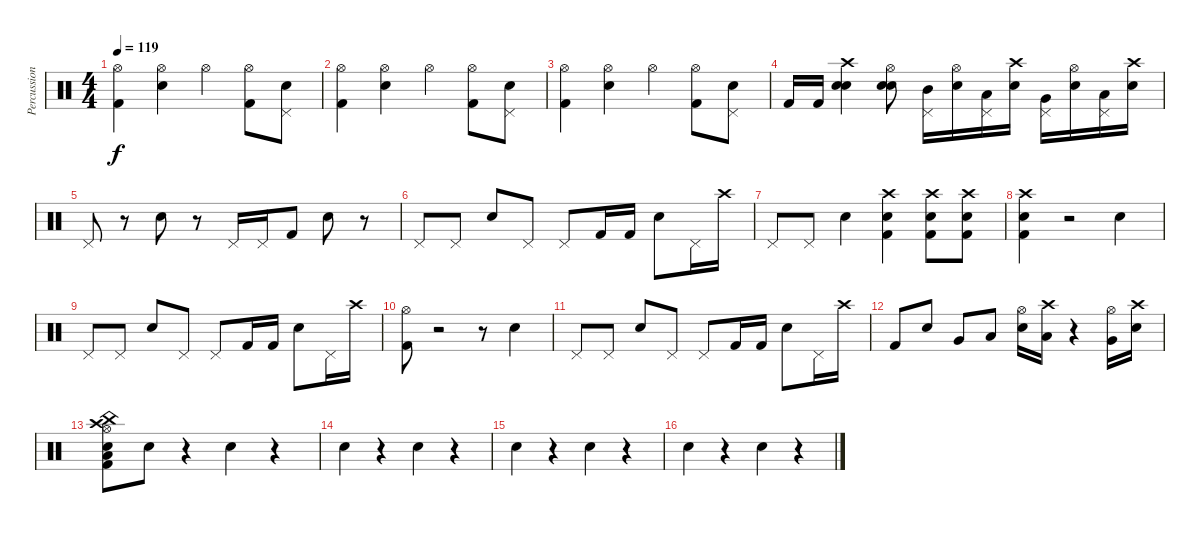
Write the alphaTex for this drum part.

\track ("Percussion" "Percussion") {instrument percussion}
\staff {score}
\articulation defaults
\ts (4 4)
\tempo 119
\clef neutral
\ks c
("Hi-Hat (open)" "Kick (hit) 2").4{dy f} ("Hi-Hat (open)" "Electric Snare (hit)").4 "Hi-Hat (open)".4 ("Hi-Hat (open)" "Kick (hit) 2").8 ("Pedal Hi-Hat (hit)" "Electric Snare (hit)").8 |
("Hi-Hat (open)" "Kick (hit) 2").4 ("Hi-Hat (open)" "Electric Snare (hit)").4 "Hi-Hat (open)".4 ("Hi-Hat (open)" "Kick (hit) 2").8 ("Pedal Hi-Hat (hit)" "Electric Snare (hit)").8 |
("Hi-Hat (open)" "Kick (hit) 2").4 ("Hi-Hat (open)" "Electric Snare (hit)").4 "Hi-Hat (open)".4 ("Hi-Hat (open)" "Kick (hit) 2").8 ("Pedal Hi-Hat (hit)" "Electric Snare (hit)").8 |
"Kick (hit) 2".16 "Kick (hit) 2".16 ("Crash high (hit)" "Electric Snare (hit)" "Snare (hit) 2").4 ("Hi-Hat (open)" "Snare (hit) 2" "Electric Snare (hit)").8 ("Pedal Hi-Hat (hit)" "Mid Tom (hit)").16 ("Hi-Hat (open)" "Electric Snare (hit)").16 ("Pedal Hi-Hat (hit)" "Low Tom (hit)").16 ("Crash high (hit)" "Electric Snare (hit)").16 ("Pedal Hi-Hat (hit)" "Very Low Tom (hit)").16 ("Hi-Hat (open)" "Electric Snare (hit)").16 ("Pedal Hi-Hat (hit)" "Low Floor Tom (hit)").16 ("Crash high (hit)" "Electric Snare (hit)").16 |
"Pedal Hi-Hat (hit)".8 r.8 "Electric Snare (hit)".8 r.8 "Pedal Hi-Hat (hit)".16 "Pedal Hi-Hat (hit)".16 "Kick (hit) 2".8 "Electric Snare (hit)".8 r.8 |
"Pedal Hi-Hat (hit)".8 "Pedal Hi-Hat (hit)".8 "Electric Snare (hit)".8 "Pedal Hi-Hat (hit)".8 "Pedal Hi-Hat (hit)".8 "Kick (hit) 2".16 "Kick (hit) 2".16 "Electric Snare (hit)".8 "Pedal Hi-Hat (hit)".16 "Crash high (hit)".16 |
"Pedal Hi-Hat (hit)".8 "Pedal Hi-Hat (hit)".8 "Electric Snare (hit)".4 ("Crash high (hit)" "Electric Snare (hit)" "Kick (hit) 2").4 ("Crash high (hit)" "Electric Snare (hit)" "Kick (hit) 2").8 ("Crash high (hit)" "Electric Snare (hit)" "Kick (hit) 2").8 |
("Kick (hit) 2" "Electric Snare (hit)" "Crash high (hit)").4 r.2 "Electric Snare (hit)".4 |
"Pedal Hi-Hat (hit)".8 "Pedal Hi-Hat (hit)".8 "Electric Snare (hit)".8 "Pedal Hi-Hat (hit)".8 "Pedal Hi-Hat (hit)".8 "Kick (hit) 2".16 "Kick (hit) 2".16 "Electric Snare (hit)".8 "Pedal Hi-Hat (hit)".16 "Crash high (hit)".16 |
("Hi-Hat (open)" "Kick (hit) 2").8 r.2 r.8 "Electric Snare (hit)".4 |
"Pedal Hi-Hat (hit)".8 "Pedal Hi-Hat (hit)".8 "Electric Snare (hit)".8 "Pedal Hi-Hat (hit)".8 "Pedal Hi-Hat (hit)".8 "Kick (hit) 2".16 "Kick (hit) 2".16 "Electric Snare (hit)".8 "Pedal Hi-Hat (hit)".16 "Crash high (hit)".16 |
"Kick (hit) 2".8 "Electric Snare (hit)".8 "Very Low Tom (hit)".8 "Low Floor Tom (hit)".8 ("Hi-Hat (open)" "Electric Snare (hit)").16 ("Crash high (hit)" "Low Floor Tom (hit)").16 r.4 ("Hi-Hat (open)" "Very Low Tom (hit)").16 ("Crash high (hit)" "Electric Snare (hit)").16 |
("China (hit)" "Crash high (hit)" "Low Floor Tom (hit)" "Electric Snare (hit)" "Kick (hit) 2" "Hi-Hat (open)").8 "Hand Clap (hit)".8 r.4 "Hand Clap (hit)".4 r.4 |
"Hand Clap (hit)".4 r.4 "Hand Clap (hit)".4 r.4 |
"Hand Clap (hit)".4 r.4 "Hand Clap (hit)".4 r.4 |
"Hand Clap (hit)".4 r.4 "Hand Clap (hit)".4 r.4
